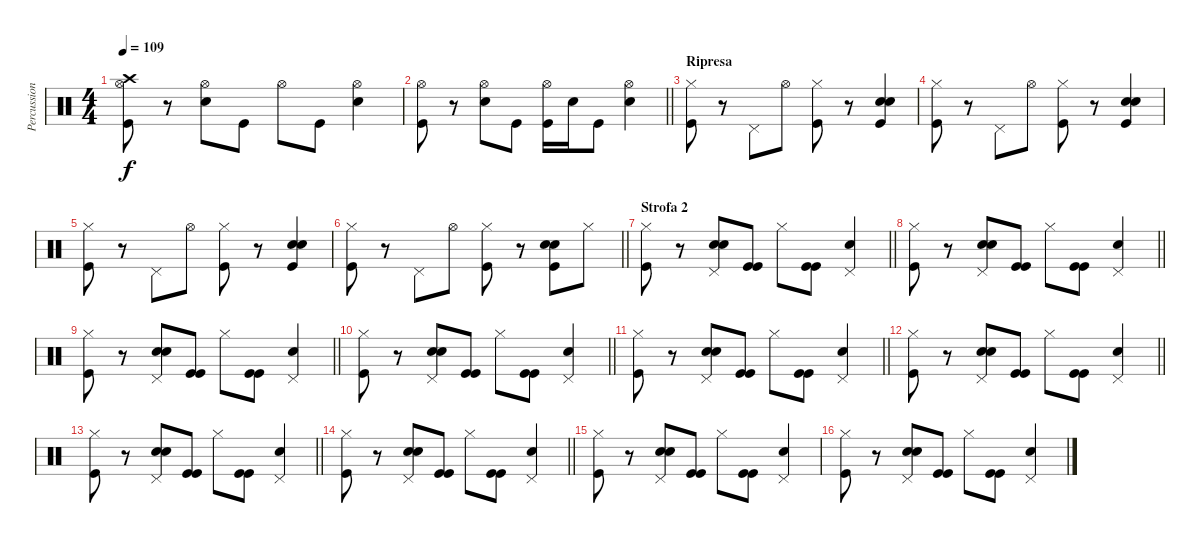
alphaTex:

\track ("Percussioni" "Percussion") {instrument percussion}
\staff {score}
\articulation defaults
\ts (4 4)
\tempo 109
\clef neutral
\ks c
("Crash high (hit)" "Kick (hit)" "Hi-Hat (open)").8{dy f} r.8 ("Snare (hit) 2" "Hi-Hat (open)").8 "Kick (hit)".8 "Hi-Hat (open)".8 "Kick (hit)".8 ("Snare (hit) 2" "Hi-Hat (open)").4 |
\barLineRight lightlight
("Kick (hit)" "Hi-Hat (open)").8 r.8 ("Snare (hit) 2" "Hi-Hat (open)").8 "Kick (hit)".8 ("Kick (hit)" "Hi-Hat (open)").16 "Snare (hit) 2".16 "Kick (hit)".8 ("Snare (hit) 2" "Hi-Hat (open)").4 |
\section ("" "Ripresa")
("Hi-Hat (closed)" "Kick (hit)").8 r.8 "Pedal Hi-Hat (hit)".8 "Hi-Hat (open)".8 ("Hi-Hat (closed)" "Kick (hit)").8 r.8 ("Snare (hit) 2" "Snare (hit) 2" "Kick (hit)").4 |
("Hi-Hat (closed)" "Kick (hit)").8 r.8 "Pedal Hi-Hat (hit)".8 "Hi-Hat (open)".8 ("Hi-Hat (closed)" "Kick (hit)").8 r.8 ("Snare (hit) 2" "Snare (hit) 2" "Kick (hit)").4 |
("Hi-Hat (closed)" "Kick (hit)").8 r.8 "Pedal Hi-Hat (hit)".8 "Hi-Hat (open)".8 ("Hi-Hat (closed)" "Kick (hit)").8 r.8 ("Snare (hit) 2" "Snare (hit) 2" "Kick (hit)").4 |
\barLineRight lightlight
("Hi-Hat (closed)" "Kick (hit)").8 r.8 "Pedal Hi-Hat (hit)".8 "Hi-Hat (open)".8 ("Hi-Hat (closed)" "Kick (hit)").8 r.8 ("Snare (hit) 2" "Snare (hit) 2" "Kick (hit)").8 "Hi-Hat (closed)".8 |
\section ("" "Strofa 2")
\barLineRight lightlight
("Hi-Hat (closed)" "Kick (hit)").8 r.8 ("Snare (hit) 2" "Snare (hit) 2" "Pedal Hi-Hat (hit)").8 ("Kick (hit)" "Kick (hit)").8 "Hi-Hat (closed)".8 ("Kick (hit)" "Kick (hit)").8 ("Snare (hit) 2" "Pedal Hi-Hat (hit)").4 |
\barLineRight lightlight
("Hi-Hat (closed)" "Kick (hit)").8 r.8 ("Snare (hit) 2" "Snare (hit) 2" "Pedal Hi-Hat (hit)").8 ("Kick (hit)" "Kick (hit)").8 "Hi-Hat (closed)".8 ("Kick (hit)" "Kick (hit)").8 ("Snare (hit) 2" "Pedal Hi-Hat (hit)").4 |
\barLineRight lightlight
("Hi-Hat (closed)" "Kick (hit)").8 r.8 ("Snare (hit) 2" "Snare (hit) 2" "Pedal Hi-Hat (hit)").8 ("Kick (hit)" "Kick (hit)").8 "Hi-Hat (closed)".8 ("Kick (hit)" "Kick (hit)").8 ("Snare (hit) 2" "Pedal Hi-Hat (hit)").4 |
\barLineRight lightlight
("Hi-Hat (closed)" "Kick (hit)").8 r.8 ("Snare (hit) 2" "Snare (hit) 2" "Pedal Hi-Hat (hit)").8 ("Kick (hit)" "Kick (hit)").8 "Hi-Hat (closed)".8 ("Kick (hit)" "Kick (hit)").8 ("Snare (hit) 2" "Pedal Hi-Hat (hit)").4 |
\barLineRight lightlight
("Hi-Hat (closed)" "Kick (hit)").8 r.8 ("Snare (hit) 2" "Snare (hit) 2" "Pedal Hi-Hat (hit)").8 ("Kick (hit)" "Kick (hit)").8 "Hi-Hat (closed)".8 ("Kick (hit)" "Kick (hit)").8 ("Snare (hit) 2" "Pedal Hi-Hat (hit)").4 |
\barLineRight lightlight
("Hi-Hat (closed)" "Kick (hit)").8 r.8 ("Snare (hit) 2" "Snare (hit) 2" "Pedal Hi-Hat (hit)").8 ("Kick (hit)" "Kick (hit)").8 "Hi-Hat (closed)".8 ("Kick (hit)" "Kick (hit)").8 ("Snare (hit) 2" "Pedal Hi-Hat (hit)").4 |
\barLineRight lightlight
("Hi-Hat (closed)" "Kick (hit)").8 r.8 ("Snare (hit) 2" "Snare (hit) 2" "Pedal Hi-Hat (hit)").8 ("Kick (hit)" "Kick (hit)").8 "Hi-Hat (closed)".8 ("Kick (hit)" "Kick (hit)").8 ("Snare (hit) 2" "Pedal Hi-Hat (hit)").4 |
\barLineRight lightlight
("Hi-Hat (closed)" "Kick (hit)").8 r.8 ("Snare (hit) 2" "Snare (hit) 2" "Pedal Hi-Hat (hit)").8 ("Kick (hit)" "Kick (hit)").8 "Hi-Hat (closed)".8 ("Kick (hit)" "Kick (hit)").8 ("Snare (hit) 2" "Pedal Hi-Hat (hit)").4 |
("Hi-Hat (closed)" "Kick (hit)").8 r.8 ("Snare (hit) 2" "Snare (hit) 2" "Pedal Hi-Hat (hit)").8 ("Kick (hit)" "Kick (hit)").8 "Hi-Hat (closed)".8 ("Kick (hit)" "Kick (hit)").8 ("Snare (hit) 2" "Pedal Hi-Hat (hit)").4 |
("Hi-Hat (closed)" "Kick (hit)").8 r.8 ("Snare (hit) 2" "Snare (hit) 2" "Pedal Hi-Hat (hit)").8 ("Kick (hit)" "Kick (hit)").8 "Hi-Hat (closed)".8 ("Kick (hit)" "Kick (hit)").8 ("Snare (hit) 2" "Pedal Hi-Hat (hit)").4
